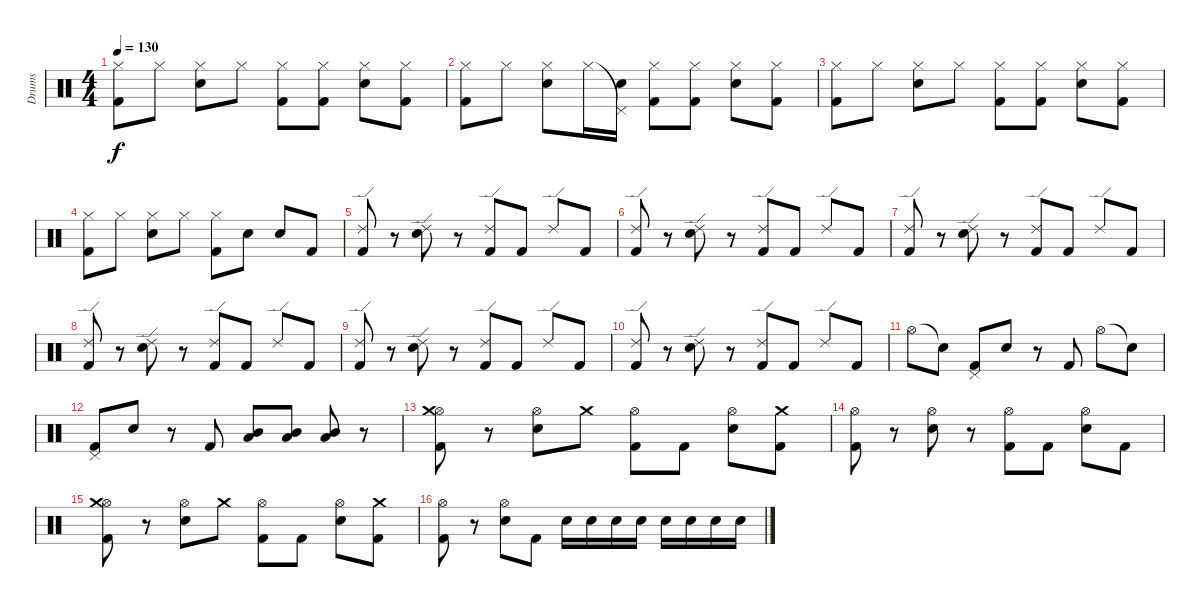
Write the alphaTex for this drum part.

\track ("Drums" "Drums") {instrument percussion}
\staff {score}
\articulation defaults
\ts (4 4)
\tempo 130
\clef neutral
\ks c
("Hi-Hat (closed)" "Kick (hit) 2").8{dy f} "Hi-Hat (closed)".8 ("Hi-Hat (closed)" "Electric Snare (hit)").8 "Hi-Hat (closed)".8 ("Hi-Hat (closed)" "Kick (hit) 2").8 ("Hi-Hat (closed)" "Kick (hit) 2").8 ("Hi-Hat (closed)" "Electric Snare (hit)").8 ("Hi-Hat (closed)" "Kick (hit) 2").8 |
("Hi-Hat (closed)" "Kick (hit) 2").8 "Hi-Hat (closed)".8 ("Hi-Hat (closed)" "Electric Snare (hit)").8 "Hi-Hat (closed)".16 ("Pedal Hi-Hat (hit)"{t} "Electric Snare (hit)").16 ("Hi-Hat (closed)" "Kick (hit) 2").8 ("Hi-Hat (closed)" "Kick (hit) 2").8 ("Hi-Hat (closed)" "Electric Snare (hit)").8 ("Hi-Hat (closed)" "Kick (hit) 2").8 |
("Hi-Hat (closed)" "Kick (hit) 2").8 "Hi-Hat (closed)".8 ("Hi-Hat (closed)" "Electric Snare (hit)").8 "Hi-Hat (closed)".8 ("Hi-Hat (closed)" "Kick (hit) 2").8 ("Hi-Hat (closed)" "Kick (hit) 2").8 ("Hi-Hat (closed)" "Electric Snare (hit)").8 ("Hi-Hat (closed)" "Kick (hit) 2").8 |
("Hi-Hat (closed)" "Kick (hit) 2").8 "Hi-Hat (closed)".8 ("Hi-Hat (closed)" "Electric Snare (hit)").8 "Hi-Hat (closed)".8 ("Hi-Hat (closed)" "Kick (hit) 2").8 "Electric Snare (hit)".8 "Electric Snare (hit)".8 "Kick (hit) 2".8 |
("Ride (edge) 2" "Kick (hit) 2").8 r.8 ("Ride (edge) 2" "Electric Snare (hit)").8 r.8 ("Ride (edge) 2" "Kick (hit) 2").8 "Kick (hit) 2".8 "Ride (edge) 2".8 "Kick (hit) 2".8 |
("Ride (edge) 2" "Kick (hit) 2").8 r.8 ("Ride (edge) 2" "Electric Snare (hit)").8 r.8 ("Ride (edge) 2" "Kick (hit) 2").8 "Kick (hit) 2".8 "Ride (edge) 2".8 "Kick (hit) 2".8 |
("Ride (edge) 2" "Kick (hit) 2").8 r.8 ("Ride (edge) 2" "Electric Snare (hit)").8 r.8 ("Ride (edge) 2" "Kick (hit) 2").8 "Kick (hit) 2".8 "Ride (edge) 2".8 "Kick (hit) 2".8 |
("Ride (edge) 2" "Kick (hit) 2").8 r.8 ("Ride (edge) 2" "Electric Snare (hit)").8 r.8 ("Ride (edge) 2" "Kick (hit) 2").8 "Kick (hit) 2".8 "Ride (edge) 2".8 "Kick (hit) 2".8 |
("Ride (edge) 2" "Kick (hit) 2").8 r.8 ("Ride (edge) 2" "Electric Snare (hit)").8 r.8 ("Ride (edge) 2" "Kick (hit) 2").8 "Kick (hit) 2".8 "Ride (edge) 2".8 "Kick (hit) 2".8 |
("Ride (edge) 2" "Kick (hit) 2").8 r.8 ("Ride (edge) 2" "Electric Snare (hit)").8 r.8 ("Ride (edge) 2" "Kick (hit) 2").8 "Kick (hit) 2".8 "Ride (edge) 2".8 "Kick (hit) 2".8 |
"Hi-Hat (open)".8 "Snare (hit)"{t}.8 ("Kick (hit) 2" "Pedal Hi-Hat (hit)").8 "Electric Snare (hit)".8 r.8 "Kick (hit) 2".8 "Hi-Hat (open)".8 "Snare (hit)"{t}.8 |
("Kick (hit) 2" "Pedal Hi-Hat (hit)").8 "Electric Snare (hit)".8 r.8 "Kick (hit) 2".8 ("Low Tom (hit)" "Mid Tom (hit)").8 ("Low Tom (hit)" "Mid Tom (hit)").8 ("Low Tom (hit)" "Mid Tom (hit)").8 r.8 |
("Hi-Hat (open)" "Kick (hit) 2" "Crash medium (hit)").8 r.8 ("Hi-Hat (open)" "Electric Snare (hit)").8 "Crash medium (hit)".8 ("Hi-Hat (open)" "Kick (hit) 2").8 "Kick (hit) 2".8 ("Hi-Hat (open)" "Electric Snare (hit)").8 ("Kick (hit) 2" "Crash medium (hit)").8 |
("Hi-Hat (open)" "Kick (hit) 2").8 r.8 ("Hi-Hat (open)" "Electric Snare (hit)").8 r.8 ("Hi-Hat (open)" "Kick (hit) 2").8 "Kick (hit) 2".8 ("Hi-Hat (open)" "Electric Snare (hit)").8 "Kick (hit) 2".8 |
("Hi-Hat (open)" "Kick (hit) 2" "Crash medium (hit)").8 r.8 ("Hi-Hat (open)" "Electric Snare (hit)").8 "Crash medium (hit)".8 ("Hi-Hat (open)" "Kick (hit) 2").8 "Kick (hit) 2".8 ("Hi-Hat (open)" "Electric Snare (hit)").8 ("Kick (hit) 2" "Crash medium (hit)").8 |
("Hi-Hat (open)" "Kick (hit) 2").8 r.8 ("Hi-Hat (open)" "Electric Snare (hit)").8 "Kick (hit) 2".8 "Electric Snare (hit)".16 "Electric Snare (hit)".16 "Electric Snare (hit)".16 "Electric Snare (hit)".16 "Electric Snare (hit)".16 "Electric Snare (hit)".16 "Electric Snare (hit)".16 "Electric Snare (hit)".16
